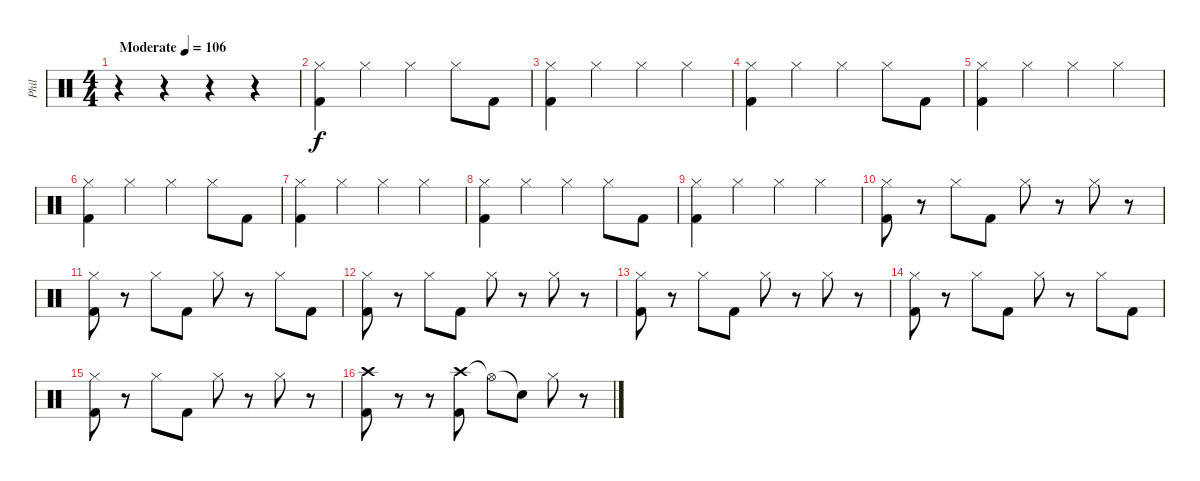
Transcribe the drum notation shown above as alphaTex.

\track ("Phil" "Phil") {instrument percussion}
\staff {score}
\articulation defaults
\ts (4 4)
\tempo (106 "Moderate")
\clef neutral
\ks c
r.4{dy f} r.4 r.4 r.4 |
("Hi-Hat (closed)" "Kick (hit) 2").4 "Hi-Hat (closed)".4 "Hi-Hat (closed)".4 "Hi-Hat (closed)".8 "Kick (hit) 2".8 |
("Hi-Hat (closed)" "Kick (hit) 2").4 "Hi-Hat (closed)".4 "Hi-Hat (closed)".4 "Hi-Hat (closed)".4 |
("Hi-Hat (closed)" "Kick (hit) 2").4 "Hi-Hat (closed)".4 "Hi-Hat (closed)".4 "Hi-Hat (closed)".8 "Kick (hit) 2".8 |
("Hi-Hat (closed)" "Kick (hit) 2").4 "Hi-Hat (closed)".4 "Hi-Hat (closed)".4 "Hi-Hat (closed)".4 |
("Hi-Hat (closed)" "Kick (hit) 2").4 "Hi-Hat (closed)".4 "Hi-Hat (closed)".4 "Hi-Hat (closed)".8 "Kick (hit) 2".8 |
("Hi-Hat (closed)" "Kick (hit) 2").4 "Hi-Hat (closed)".4 "Hi-Hat (closed)".4 "Hi-Hat (closed)".4 |
("Hi-Hat (closed)" "Kick (hit) 2").4 "Hi-Hat (closed)".4 "Hi-Hat (closed)".4 "Hi-Hat (closed)".8 "Kick (hit) 2".8 |
("Hi-Hat (closed)" "Kick (hit) 2").4 "Hi-Hat (closed)".4 "Hi-Hat (closed)".4 "Hi-Hat (closed)".4 |
("Hi-Hat (closed)" "Kick (hit) 2").8 r.8 "Hi-Hat (closed)".8 "Kick (hit) 2".8 "Hi-Hat (closed)".8 r.8 "Hi-Hat (closed)".8 r.8 |
("Hi-Hat (closed)" "Kick (hit) 2").8 r.8 "Hi-Hat (closed)".8 "Kick (hit) 2".8 "Hi-Hat (closed)".8 r.8 "Hi-Hat (closed)".8 "Kick (hit) 2".8 |
("Hi-Hat (closed)" "Kick (hit) 2").8 r.8 "Hi-Hat (closed)".8 "Kick (hit) 2".8 "Hi-Hat (closed)".8 r.8 "Hi-Hat (closed)".8 r.8 |
("Hi-Hat (closed)" "Kick (hit) 2").8 r.8 "Hi-Hat (closed)".8 "Kick (hit) 2".8 "Hi-Hat (closed)".8 r.8 "Hi-Hat (closed)".8 r.8 |
("Hi-Hat (closed)" "Kick (hit) 2").8 r.8 "Hi-Hat (closed)".8 "Kick (hit) 2".8 "Hi-Hat (closed)".8 r.8 "Hi-Hat (closed)".8 "Kick (hit) 2".8 |
("Hi-Hat (closed)" "Kick (hit) 2").8 r.8 "Hi-Hat (closed)".8 "Kick (hit) 2".8 "Hi-Hat (closed)".8 r.8 "Hi-Hat (closed)".8 r.8 |
("Crash high (hit)" "Kick (hit) 2").8 r.8 r.8 ("Crash high (hit)" "Kick (hit) 2").8 "Hi-Hat (open)"{t}.8 "Snare (hit)"{t}.8 "Hi-Hat (closed)".8 r.8
